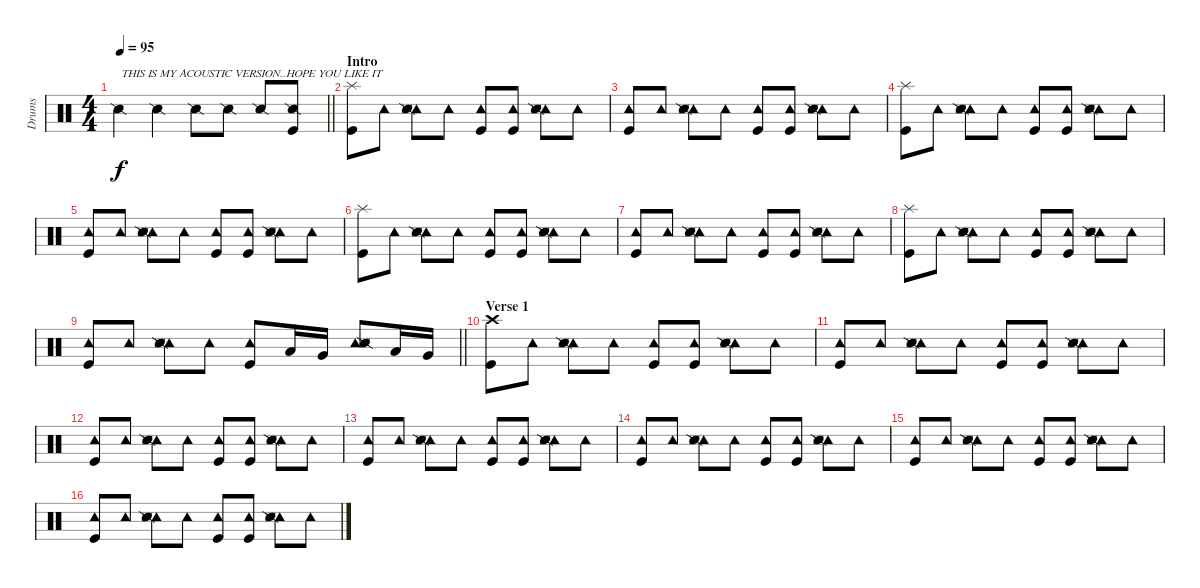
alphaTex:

\track ("Drums" "Drums") {instrument percussion}
\staff {score}
\articulation defaults
\ts (4 4)
\tempo 95
\clef neutral
\barLineRight lightlight
\ks c "Snare (side stick) 2".4{txt "THIS IS MY ACOUSTIC VERSION..HOPE YOU LIKE IT" dy f} "Snare (side stick) 2".4 "Snare (side stick) 2".8 "Snare (side stick) 2".8 "Snare (side stick) 2".8
("Snare (side stick) 2" "Kick (hit)").8 |
\section ("" "Intro")
("Splash (hit)" "Kick (hit)").8 "Tambourine (hit)".8 ("Tambourine (hit)" "Snare (side stick) 3" "Snare (side stick) 2").8 "Tambourine (hit)".8 ("Tambourine (hit)" "Kick (hit)").8 ("Tambourine (hit)" "Kick (hit)").8 ("Tambourine (hit)" "Snare (side stick) 3" "Snare (side stick) 2").8 "Tambourine (hit)".8 |
("Tambourine (hit)" "Kick (hit)").8 "Tambourine (hit)".8 ("Tambourine (hit)" "Snare (side stick) 3" "Snare (side stick) 2").8 "Tambourine (hit)".8 ("Tambourine (hit)" "Kick (hit)").8 ("Tambourine (hit)" "Kick (hit)").8 ("Tambourine (hit)" "Snare (side stick) 3" "Snare (side stick) 2").8 "Tambourine (hit)".8 |
("Splash (hit)" "Kick (hit)").8 "Tambourine (hit)".8 ("Tambourine (hit)" "Snare (side stick) 3" "Snare (side stick) 2").8 "Tambourine (hit)".8 ("Tambourine (hit)" "Kick (hit)").8 ("Tambourine (hit)" "Kick (hit)").8 ("Tambourine (hit)" "Snare (side stick) 3" "Snare (side stick) 2").8 "Tambourine (hit)".8 |
("Tambourine (hit)" "Kick (hit)").8 "Tambourine (hit)".8 ("Tambourine (hit)" "Snare (side stick) 3" "Snare (side stick) 2").8 "Tambourine (hit)".8 ("Tambourine (hit)" "Kick (hit)").8 ("Tambourine (hit)" "Kick (hit)").8 ("Tambourine (hit)" "Snare (side stick) 3" "Snare (side stick) 2").8 "Tambourine (hit)".8 |
("Splash (hit)" "Kick (hit)").8 "Tambourine (hit)".8 ("Tambourine (hit)" "Snare (side stick) 3" "Snare (side stick) 2").8 "Tambourine (hit)".8 ("Tambourine (hit)" "Kick (hit)").8 ("Tambourine (hit)" "Kick (hit)").8 ("Tambourine (hit)" "Snare (side stick) 3" "Snare (side stick) 2").8 "Tambourine (hit)".8 |
("Tambourine (hit)" "Kick (hit)").8 "Tambourine (hit)".8 ("Tambourine (hit)" "Snare (side stick) 3" "Snare (side stick) 2").8 "Tambourine (hit)".8 ("Tambourine (hit)" "Kick (hit)").8 ("Tambourine (hit)" "Kick (hit)").8 ("Tambourine (hit)" "Snare (side stick) 3" "Snare (side stick) 2").8 "Tambourine (hit)".8 |
("Splash (hit)" "Kick (hit)").8 "Tambourine (hit)".8 ("Tambourine (hit)" "Snare (side stick) 3" "Snare (side stick) 2").8 "Tambourine (hit)".8 ("Tambourine (hit)" "Kick (hit)").8 ("Tambourine (hit)" "Kick (hit)").8 ("Tambourine (hit)" "Snare (side stick) 3" "Snare (side stick) 2").8 "Tambourine (hit)".8 |
\barLineRight lightlight
("Tambourine (hit)" "Kick (hit)").8 "Tambourine (hit)".8 ("Tambourine (hit)" "Snare (side stick) 3" "Snare (side stick) 2").8 "Tambourine (hit)".8 ("Tambourine (hit)" "Kick (hit)").8 "Low Tom (hit)".16 "Very Low Tom (hit)".16 ("Tambourine (hit)" "Snare (side stick) 3" "Snare (side stick) 2").8 "Low Tom (hit)".16 "Very Low Tom (hit)".16 |
\section ("" "Verse 1")
("Crash high (hit)" "Kick (hit)").8 "Tambourine (hit)".8 ("Tambourine (hit)" "Snare (side stick) 3" "Snare (side stick) 2").8 "Tambourine (hit)".8 ("Tambourine (hit)" "Kick (hit)").8 ("Tambourine (hit)" "Kick (hit)").8 ("Tambourine (hit)" "Snare (side stick) 3" "Snare (side stick) 2").8 "Tambourine (hit)".8 |
("Tambourine (hit)" "Kick (hit)").8 "Tambourine (hit)".8 ("Tambourine (hit)" "Snare (side stick) 3" "Snare (side stick) 2").8 "Tambourine (hit)".8 ("Tambourine (hit)" "Kick (hit)").8 ("Tambourine (hit)" "Kick (hit)").8 ("Tambourine (hit)" "Snare (side stick) 3" "Snare (side stick) 2").8 "Tambourine (hit)".8 |
("Tambourine (hit)" "Kick (hit)").8 "Tambourine (hit)".8 ("Tambourine (hit)" "Snare (side stick) 3" "Snare (side stick) 2").8 "Tambourine (hit)".8 ("Tambourine (hit)" "Kick (hit)").8 ("Tambourine (hit)" "Kick (hit)").8 ("Tambourine (hit)" "Snare (side stick) 3" "Snare (side stick) 2").8 "Tambourine (hit)".8 |
("Tambourine (hit)" "Kick (hit)").8 "Tambourine (hit)".8 ("Tambourine (hit)" "Snare (side stick) 3" "Snare (side stick) 2").8 "Tambourine (hit)".8 ("Tambourine (hit)" "Kick (hit)").8 ("Tambourine (hit)" "Kick (hit)").8 ("Tambourine (hit)" "Snare (side stick) 3" "Snare (side stick) 2").8 "Tambourine (hit)".8 |
("Tambourine (hit)" "Kick (hit)").8 "Tambourine (hit)".8 ("Tambourine (hit)" "Snare (side stick) 3" "Snare (side stick) 2").8 "Tambourine (hit)".8 ("Tambourine (hit)" "Kick (hit)").8 ("Tambourine (hit)" "Kick (hit)").8 ("Tambourine (hit)" "Snare (side stick) 3" "Snare (side stick) 2").8 "Tambourine (hit)".8 |
("Tambourine (hit)" "Kick (hit)").8 "Tambourine (hit)".8 ("Tambourine (hit)" "Snare (side stick) 3" "Snare (side stick) 2").8 "Tambourine (hit)".8 ("Tambourine (hit)" "Kick (hit)").8 ("Tambourine (hit)" "Kick (hit)").8 ("Tambourine (hit)" "Snare (side stick) 3" "Snare (side stick) 2").8 "Tambourine (hit)".8 |
("Tambourine (hit)" "Kick (hit)").8 "Tambourine (hit)".8 ("Tambourine (hit)" "Snare (side stick) 3" "Snare (side stick) 2").8 "Tambourine (hit)".8 ("Tambourine (hit)" "Kick (hit)").8 ("Tambourine (hit)" "Kick (hit)").8 ("Tambourine (hit)" "Snare (side stick) 3" "Snare (side stick) 2").8 "Tambourine (hit)".8
